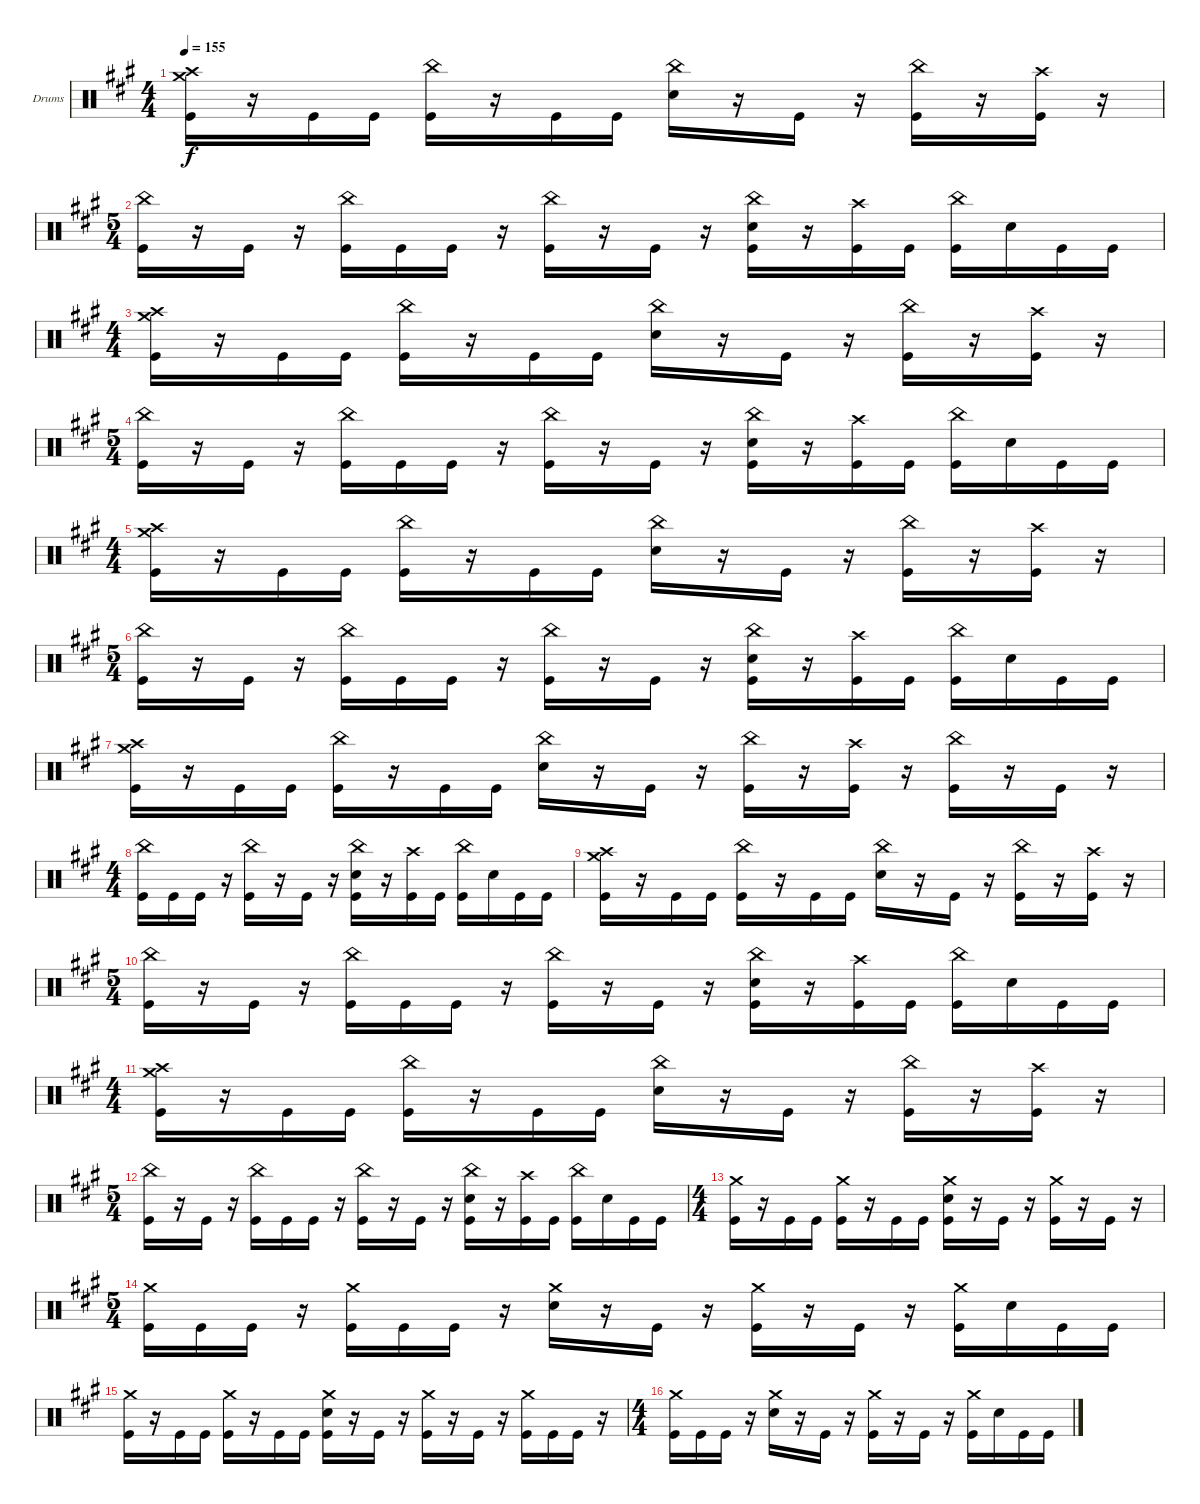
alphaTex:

\bracketExtendMode groupsimilarinstruments
\firstSystemTrackNameOrientation horizontal
\otherSystemsTrackNameOrientation horizontal
\track ("Drumkit" "Drums") {instrument percussion}
\staff {score}
\articulation defaults
\ts (4 4)
\tempo 155
\clef neutral
\ks a
("Crash medium (hit)" "Crash high (hit)" "Kick (hit)").16{dy f} r.16 "Kick (hit)".16 "Kick (hit)".16 ("China (hit)" "Kick (hit)").16 r.16 "Kick (hit)".16 "Kick (hit)".16 ("China (hit)" "Snare (hit) 2").16 r.16 "Kick (hit)".16 r.16 ("China (hit)" "Kick (hit)").16 r.16 ("Crash high (hit)" "Kick (hit)").16 r.16 |
\ts (5 4)
("China (hit)" "Kick (hit)").16 r.16 "Kick (hit)".16 r.16 ("China (hit)" "Kick (hit)").16 "Kick (hit)".16 "Kick (hit)".16 r.16 ("China (hit)" "Kick (hit)").16 r.16 "Kick (hit)".16 r.16 ("China (hit)" "Snare (hit) 2" "Kick (hit)").16 r.16 ("Crash high (hit)" "Kick (hit)").16 "Kick (hit)".16 ("China (hit)" "Kick (hit)").16 "Snare (hit) 2".16 "Kick (hit)".16 "Kick (hit)".16 |
\ts (4 4)
("Crash medium (hit)" "Crash high (hit)" "Kick (hit)").16 r.16 "Kick (hit)".16 "Kick (hit)".16 ("China (hit)" "Kick (hit)").16 r.16 "Kick (hit)".16 "Kick (hit)".16 ("China (hit)" "Snare (hit) 2").16 r.16 "Kick (hit)".16 r.16 ("China (hit)" "Kick (hit)").16 r.16 ("Crash high (hit)" "Kick (hit)").16 r.16 |
\ts (5 4)
("China (hit)" "Kick (hit)").16 r.16 "Kick (hit)".16 r.16 ("China (hit)" "Kick (hit)").16 "Kick (hit)".16 "Kick (hit)".16 r.16 ("China (hit)" "Kick (hit)").16 r.16 "Kick (hit)".16 r.16 ("China (hit)" "Snare (hit) 2" "Kick (hit)").16 r.16 ("Crash high (hit)" "Kick (hit)").16 "Kick (hit)".16 ("China (hit)" "Kick (hit)").16 "Snare (hit) 2".16 "Kick (hit)".16 "Kick (hit)".16 |
\ts (4 4)
("Crash medium (hit)" "Crash high (hit)" "Kick (hit)").16 r.16 "Kick (hit)".16 "Kick (hit)".16 ("China (hit)" "Kick (hit)").16 r.16 "Kick (hit)".16 "Kick (hit)".16 ("China (hit)" "Snare (hit) 2").16 r.16 "Kick (hit)".16 r.16 ("China (hit)" "Kick (hit)").16 r.16 ("Crash high (hit)" "Kick (hit)").16 r.16 |
\ts (5 4)
("China (hit)" "Kick (hit)").16 r.16 "Kick (hit)".16 r.16 ("China (hit)" "Kick (hit)").16 "Kick (hit)".16 "Kick (hit)".16 r.16 ("China (hit)" "Kick (hit)").16 r.16 "Kick (hit)".16 r.16 ("China (hit)" "Snare (hit) 2" "Kick (hit)").16 r.16 ("Crash high (hit)" "Kick (hit)").16 "Kick (hit)".16 ("China (hit)" "Kick (hit)").16 "Snare (hit) 2".16 "Kick (hit)".16 "Kick (hit)".16 |
("Crash medium (hit)" "Crash high (hit)" "Kick (hit)").16 r.16 "Kick (hit)".16 "Kick (hit)".16 ("China (hit)" "Kick (hit)").16 r.16 "Kick (hit)".16 "Kick (hit)".16 ("China (hit)" "Snare (hit) 2").16 r.16 "Kick (hit)".16 r.16 ("China (hit)" "Kick (hit)").16 r.16 ("Crash high (hit)" "Kick (hit)").16 r.16 ("China (hit)" "Kick (hit)").16 r.16 "Kick (hit)".16 r.16 |
\ts (4 4)
("China (hit)" "Kick (hit)").16 "Kick (hit)".16 "Kick (hit)".16 r.16 ("China (hit)" "Kick (hit)").16 r.16 "Kick (hit)".16 r.16 ("China (hit)" "Snare (hit) 2" "Kick (hit)").16 r.16 ("Crash high (hit)" "Kick (hit)").16 "Kick (hit)".16 ("China (hit)" "Kick (hit)").16 "Snare (hit) 2".16 "Kick (hit)".16 "Kick (hit)".16 |
("Crash medium (hit)" "Crash high (hit)" "Kick (hit)").16 r.16 "Kick (hit)".16 "Kick (hit)".16 ("China (hit)" "Kick (hit)").16 r.16 "Kick (hit)".16 "Kick (hit)".16 ("China (hit)" "Snare (hit) 2").16 r.16 "Kick (hit)".16 r.16 ("China (hit)" "Kick (hit)").16 r.16 ("Crash high (hit)" "Kick (hit)").16 r.16 |
\ts (5 4)
("China (hit)" "Kick (hit)").16 r.16 "Kick (hit)".16 r.16 ("China (hit)" "Kick (hit)").16 "Kick (hit)".16 "Kick (hit)".16 r.16 ("China (hit)" "Kick (hit)").16 r.16 "Kick (hit)".16 r.16 ("China (hit)" "Snare (hit) 2" "Kick (hit)").16 r.16 ("Crash high (hit)" "Kick (hit)").16 "Kick (hit)".16 ("China (hit)" "Kick (hit)").16 "Snare (hit) 2".16 "Kick (hit)".16 "Kick (hit)".16 |
\ts (4 4)
("Crash medium (hit)" "Crash high (hit)" "Kick (hit)").16 r.16 "Kick (hit)".16 "Kick (hit)".16 ("China (hit)" "Kick (hit)").16 r.16 "Kick (hit)".16 "Kick (hit)".16 ("China (hit)" "Snare (hit) 2").16 r.16 "Kick (hit)".16 r.16 ("China (hit)" "Kick (hit)").16 r.16 ("Crash high (hit)" "Kick (hit)").16 r.16 |
\ts (5 4)
("China (hit)" "Kick (hit)").16 r.16 "Kick (hit)".16 r.16 ("China (hit)" "Kick (hit)").16 "Kick (hit)".16 "Kick (hit)".16 r.16 ("China (hit)" "Kick (hit)").16 r.16 "Kick (hit)".16 r.16 ("China (hit)" "Snare (hit) 2" "Kick (hit)").16 r.16 ("Crash high (hit)" "Kick (hit)").16 "Kick (hit)".16 ("China (hit)" "Kick (hit)").16 "Snare (hit) 2".16 "Kick (hit)".16 "Kick (hit)".16 |
\ts (4 4)
("Crash medium (hit)" "Kick (hit)").16 r.16 "Kick (hit)".16 "Kick (hit)".16 ("Crash medium (hit)" "Kick (hit)").16 r.16 "Kick (hit)".16 "Kick (hit)".16 ("Crash medium (hit)" "Snare (hit) 2" "Kick (hit)").16 r.16 "Kick (hit)".16 r.16 ("Crash medium (hit)" "Kick (hit)").16 r.16 "Kick (hit)".16 r.16 |
\ts (5 4)
("Crash medium (hit)" "Kick (hit)").16 "Kick (hit)".16 "Kick (hit)".16 r.16 ("Crash medium (hit)" "Kick (hit)").16 "Kick (hit)".16 "Kick (hit)".16 r.16 ("Crash medium (hit)" "Snare (hit) 2").16 r.16 "Kick (hit)".16 r.16 ("Crash medium (hit)" "Kick (hit)").16 r.16 "Kick (hit)".16 r.16 ("Crash medium (hit)" "Kick (hit)").16 "Snare (hit) 2".16 "Kick (hit)".16 "Kick (hit)".16 |
("Crash medium (hit)" "Kick (hit)").16 r.16 "Kick (hit)".16 "Kick (hit)".16 ("Crash medium (hit)" "Kick (hit)").16 r.16 "Kick (hit)".16 "Kick (hit)".16 ("Crash medium (hit)" "Snare (hit) 2" "Kick (hit)").16 r.16 "Kick (hit)".16 r.16 ("Crash medium (hit)" "Kick (hit)").16 r.16 "Kick (hit)".16 r.16 ("Crash medium (hit)" "Kick (hit)").16 "Kick (hit)".16 "Kick (hit)".16 r.16 |
\ts (4 4)
("Crash medium (hit)" "Kick (hit)").16 "Kick (hit)".16 "Kick (hit)".16 r.16 ("Crash medium (hit)" "Snare (hit) 2").16 r.16 "Kick (hit)".16 r.16 ("Crash medium (hit)" "Kick (hit)").16 r.16 "Kick (hit)".16 r.16 ("Crash medium (hit)" "Kick (hit)").16 "Snare (hit) 2".16 "Kick (hit)".16 "Kick (hit)".16
